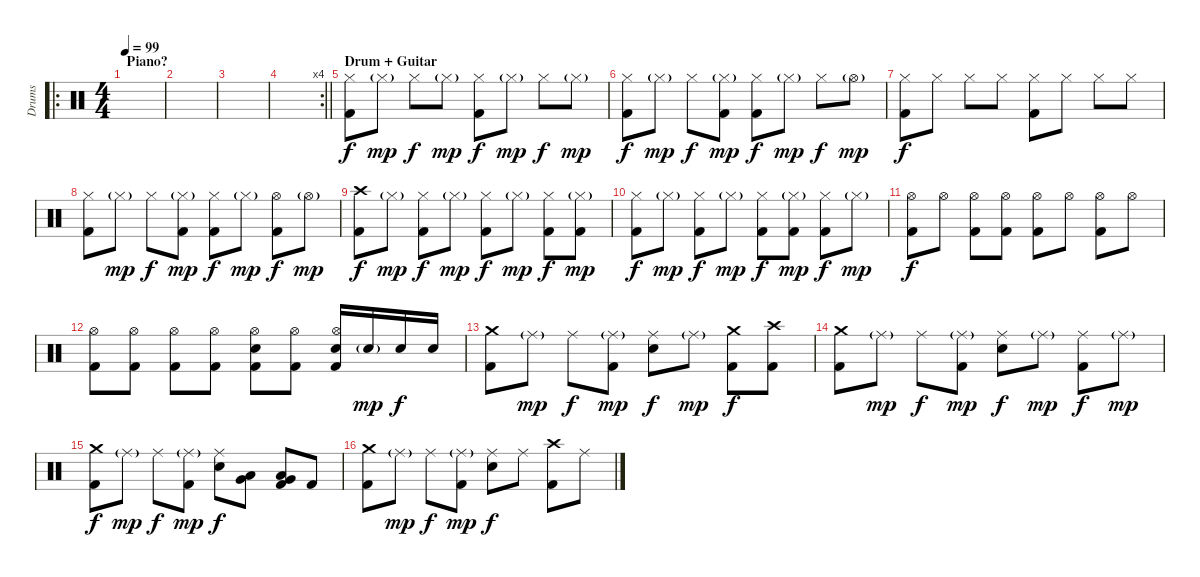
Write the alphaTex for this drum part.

\track ("Drums" "Drums") {instrument percussion}
\staff {score}
\articulation defaults
\ro
\ts (4 4)
\section ("" "Piano?")
\tempo 99
\clef neutral
\ks c
|
|
|
\rc 4
\barLineRight lightlight
|
\section ("" "Drum + Guitar")
("Hi-Hat (closed)" "Kick (hit) 2").8{dy f} "Hi-Hat (closed)"{g}.8{dy mp} "Hi-Hat (closed)".8{dy f} "Hi-Hat (closed)"{g}.8{dy mp} ("Hi-Hat (closed)" "Kick (hit) 2").8{dy f} "Hi-Hat (closed)"{g}.8{dy mp} "Hi-Hat (closed)".8{dy f} "Hi-Hat (closed)"{g}.8{dy mp} |
("Hi-Hat (closed)" "Kick (hit) 2").8{dy f} "Hi-Hat (closed)"{g}.8{dy mp} "Hi-Hat (closed)".8{dy f} ("Hi-Hat (closed)"{g} "Kick (hit) 2").8{dy mp} ("Hi-Hat (closed)" "Kick (hit) 2").8{dy f} "Hi-Hat (closed)"{g}.8{dy mp} "Hi-Hat (closed)".8{dy f} "Hi-Hat (open)"{g}.8{dy mp} |
("Hi-Hat (closed)" "Kick (hit) 2").8{dy f} "Hi-Hat (closed)".8 "Hi-Hat (closed)".8 "Hi-Hat (closed)".8 ("Hi-Hat (closed)" "Kick (hit) 2").8 "Hi-Hat (closed)".8 "Hi-Hat (closed)".8 "Hi-Hat (closed)".8 |
("Hi-Hat (closed)" "Kick (hit) 2").8 "Hi-Hat (closed)"{g}.8{dy mp} "Hi-Hat (closed)".8{dy f} ("Hi-Hat (closed)"{g} "Kick (hit) 2").8{dy mp} ("Hi-Hat (closed)" "Kick (hit) 2").8{dy f} "Hi-Hat (closed)"{g}.8{dy mp} ("Hi-Hat (open)" "Kick (hit) 2").8{dy f} "Hi-Hat (open)"{g}.8{dy mp} |
("Crash high (hit)" "Kick (hit) 2").8{dy f} "Hi-Hat (closed)"{g}.8{dy mp} ("Hi-Hat (closed)" "Kick (hit) 2").8{dy f} "Hi-Hat (closed)"{g}.8{dy mp} ("Hi-Hat (closed)" "Kick (hit) 2").8{dy f} "Hi-Hat (closed)"{g}.8{dy mp} ("Hi-Hat (closed)" "Kick (hit) 2").8{dy f} ("Hi-Hat (closed)"{g} "Kick (hit) 2").8{dy mp} |
("Hi-Hat (closed)" "Kick (hit) 2").8{dy f} "Hi-Hat (closed)"{g}.8{dy mp} ("Hi-Hat (closed)" "Kick (hit) 2").8{dy f} "Hi-Hat (closed)"{g}.8{dy mp} ("Hi-Hat (closed)" "Kick (hit) 2").8{dy f} ("Hi-Hat (closed)"{g} "Kick (hit) 2").8{dy mp} ("Hi-Hat (closed)" "Kick (hit) 2").8{dy f} "Hi-Hat (closed)"{g}.8{dy mp} |
("Hi-Hat (open)" "Kick (hit) 2").8{dy f} "Hi-Hat (open)".8 ("Hi-Hat (open)" "Kick (hit) 2").8 ("Hi-Hat (open)" "Kick (hit) 2").8 ("Hi-Hat (open)" "Kick (hit) 2").8 "Hi-Hat (open)".8 ("Hi-Hat (open)" "Kick (hit) 2").8 "Hi-Hat (open)".8 |
("Hi-Hat (open)" "Kick (hit) 2").8 ("Hi-Hat (open)" "Kick (hit) 2").8 ("Hi-Hat (open)" "Kick (hit) 2").8 ("Hi-Hat (open)" "Kick (hit) 2").8 ("Hi-Hat (open)" "Electric Snare (hit)" "Kick (hit) 2").8 ("Hi-Hat (open)" "Kick (hit) 2").8 ("Hi-Hat (open)" "Electric Snare (hit)" "Kick (hit) 2").16 "Electric Snare (hit)"{g}.16{dy mp} "Electric Snare (hit)".16{dy f} "Electric Snare (hit)".16 |
("Crash medium (hit)" "Kick (hit) 2").8 "Ride (middle)"{g}.8{dy mp} "Ride (middle)".8{dy f} ("Ride (middle)"{g} "Kick (hit) 2").8{dy mp} ("Ride (middle)" "Electric Snare (hit)").8{dy f} "Ride (middle)"{g}.8{dy mp} ("Crash medium (hit)" "Kick (hit) 2").8{dy f} ("Crash high (hit)" "Kick (hit) 2").8 |
("Crash medium (hit)" "Kick (hit) 2").8 "Ride (middle)"{g}.8{dy mp} "Ride (middle)".8{dy f} ("Ride (middle)"{g} "Kick (hit) 2").8{dy mp} ("Ride (middle)" "Electric Snare (hit)").8{dy f} "Ride (middle)"{g}.8{dy mp} ("Ride (middle)" "Kick (hit) 2").8{dy f} "Ride (middle)"{g}.8{dy mp} |
("Crash medium (hit)" "Kick (hit) 2").8{dy f} "Ride (middle)"{g}.8{dy mp} "Ride (middle)".8{dy f} ("Ride (middle)"{g} "Kick (hit) 2").8{dy mp} ("Ride (middle)" "Electric Snare (hit)").8{dy f} ("Very Low Tom (hit)" "Low Floor Tom (hit)").8 ("Very Low Tom (hit)" "Low Floor Tom (hit)" "Kick (hit) 2").8 "Kick (hit) 2".8 |
("Crash medium (hit)" "Kick (hit) 2").8 "Ride (middle)"{g}.8{dy mp} "Ride (middle)".8{dy f} ("Ride (middle)"{g} "Kick (hit) 2").8{dy mp} ("Ride (middle)" "Electric Snare (hit)").8{dy f} "Ride (middle)".8 ("Crash high (hit)" "Kick (hit) 2").8 "Ride (middle)".8
